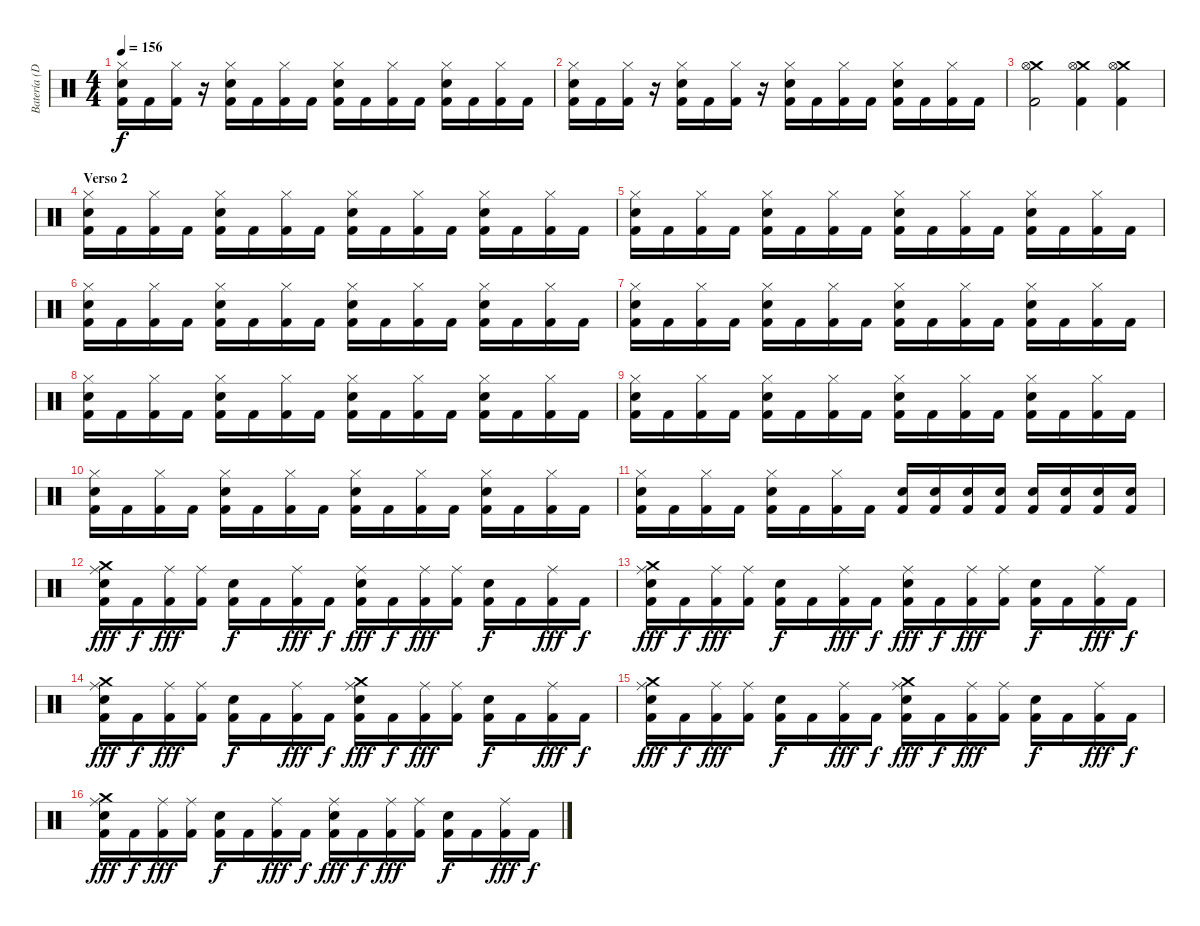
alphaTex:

\track ("Batería (Dani)" "Batería (D") {instrument percussion}
\staff {score}
\articulation defaults
\ts (4 4)
\tempo 156
\clef neutral
\ks c
("Hi-Hat (closed)" "Snare (hit) 2" "Kick (hit) 2").16{dy f} "Kick (hit) 2".16 ("Hi-Hat (closed)" "Kick (hit) 2").16 r.16 ("Hi-Hat (closed)" "Snare (hit) 2" "Kick (hit) 2").16 "Kick (hit) 2".16 ("Hi-Hat (closed)" "Kick (hit) 2").16 "Kick (hit) 2".16 ("Hi-Hat (closed)" "Snare (hit) 2" "Kick (hit) 2").16 "Kick (hit) 2".16 ("Hi-Hat (closed)" "Kick (hit) 2").16 "Kick (hit) 2".16 ("Hi-Hat (closed)" "Snare (hit) 2" "Kick (hit) 2").16 "Kick (hit) 2".16 ("Hi-Hat (closed)" "Kick (hit) 2").16 "Kick (hit) 2".16 |
("Hi-Hat (closed)" "Snare (hit) 2" "Kick (hit) 2").16 "Kick (hit) 2".16 ("Hi-Hat (closed)" "Kick (hit) 2").16 r.16 ("Hi-Hat (closed)" "Snare (hit) 2" "Kick (hit) 2").16 "Kick (hit) 2".16 ("Hi-Hat (closed)" "Kick (hit) 2").16 r.16 ("Hi-Hat (closed)" "Snare (hit) 2" "Kick (hit) 2").16 "Kick (hit) 2".16 ("Hi-Hat (closed)" "Kick (hit) 2").16 "Kick (hit) 2".16 ("Hi-Hat (closed)" "Snare (hit) 2" "Kick (hit) 2").16 "Kick (hit) 2".16 ("Hi-Hat (closed)" "Kick (hit) 2").16 "Kick (hit) 2".16 |
("Crash medium (hit)" "Hi-Hat (open)" "Kick (hit) 2").2 ("Crash medium (hit)" "Hi-Hat (open)" "Kick (hit) 2").4 ("Crash medium (hit)" "Hi-Hat (open)" "Kick (hit) 2").4 |
\section ("" "Verso 2")
("Hi-Hat (closed)" "Snare (hit) 2" "Kick (hit) 2").16 "Kick (hit) 2".16 ("Hi-Hat (closed)" "Kick (hit) 2").16 "Kick (hit) 2".16 ("Hi-Hat (closed)" "Snare (hit) 2" "Kick (hit) 2").16 "Kick (hit) 2".16 ("Hi-Hat (closed)" "Kick (hit) 2").16 "Kick (hit) 2".16 ("Hi-Hat (closed)" "Snare (hit) 2" "Kick (hit) 2").16 "Kick (hit) 2".16 ("Hi-Hat (closed)" "Kick (hit) 2").16 "Kick (hit) 2".16 ("Hi-Hat (closed)" "Snare (hit) 2" "Kick (hit) 2").16 "Kick (hit) 2".16 ("Hi-Hat (closed)" "Kick (hit) 2").16 "Kick (hit) 2".16 |
("Hi-Hat (closed)" "Snare (hit) 2" "Kick (hit) 2").16 "Kick (hit) 2".16 ("Hi-Hat (closed)" "Kick (hit) 2").16 "Kick (hit) 2".16 ("Hi-Hat (closed)" "Snare (hit) 2" "Kick (hit) 2").16 "Kick (hit) 2".16 ("Hi-Hat (closed)" "Kick (hit) 2").16 "Kick (hit) 2".16 ("Hi-Hat (closed)" "Snare (hit) 2" "Kick (hit) 2").16 "Kick (hit) 2".16 ("Hi-Hat (closed)" "Kick (hit) 2").16 "Kick (hit) 2".16 ("Hi-Hat (closed)" "Snare (hit) 2" "Kick (hit) 2").16 "Kick (hit) 2".16 ("Hi-Hat (closed)" "Kick (hit) 2").16 "Kick (hit) 2".16 |
("Hi-Hat (closed)" "Snare (hit) 2" "Kick (hit) 2").16 "Kick (hit) 2".16 ("Hi-Hat (closed)" "Kick (hit) 2").16 "Kick (hit) 2".16 ("Hi-Hat (closed)" "Snare (hit) 2" "Kick (hit) 2").16 "Kick (hit) 2".16 ("Hi-Hat (closed)" "Kick (hit) 2").16 "Kick (hit) 2".16 ("Hi-Hat (closed)" "Snare (hit) 2" "Kick (hit) 2").16 "Kick (hit) 2".16 ("Hi-Hat (closed)" "Kick (hit) 2").16 "Kick (hit) 2".16 ("Hi-Hat (closed)" "Snare (hit) 2" "Kick (hit) 2").16 "Kick (hit) 2".16 ("Hi-Hat (closed)" "Kick (hit) 2").16 "Kick (hit) 2".16 |
("Hi-Hat (closed)" "Snare (hit) 2" "Kick (hit) 2").16 "Kick (hit) 2".16 ("Hi-Hat (closed)" "Kick (hit) 2").16 "Kick (hit) 2".16 ("Hi-Hat (closed)" "Snare (hit) 2" "Kick (hit) 2").16 "Kick (hit) 2".16 ("Hi-Hat (closed)" "Kick (hit) 2").16 "Kick (hit) 2".16 ("Hi-Hat (closed)" "Snare (hit) 2" "Kick (hit) 2").16 "Kick (hit) 2".16 ("Hi-Hat (closed)" "Kick (hit) 2").16 "Kick (hit) 2".16 ("Hi-Hat (closed)" "Snare (hit) 2" "Kick (hit) 2").16 "Kick (hit) 2".16 ("Hi-Hat (closed)" "Kick (hit) 2").16 "Kick (hit) 2".16 |
("Hi-Hat (closed)" "Snare (hit) 2" "Kick (hit) 2").16 "Kick (hit) 2".16 ("Hi-Hat (closed)" "Kick (hit) 2").16 "Kick (hit) 2".16 ("Hi-Hat (closed)" "Snare (hit) 2" "Kick (hit) 2").16 "Kick (hit) 2".16 ("Hi-Hat (closed)" "Kick (hit) 2").16 "Kick (hit) 2".16 ("Hi-Hat (closed)" "Snare (hit) 2" "Kick (hit) 2").16 "Kick (hit) 2".16 ("Hi-Hat (closed)" "Kick (hit) 2").16 "Kick (hit) 2".16 ("Hi-Hat (closed)" "Snare (hit) 2" "Kick (hit) 2").16 "Kick (hit) 2".16 ("Hi-Hat (closed)" "Kick (hit) 2").16 "Kick (hit) 2".16 |
("Hi-Hat (closed)" "Snare (hit) 2" "Kick (hit) 2").16 "Kick (hit) 2".16 ("Hi-Hat (closed)" "Kick (hit) 2").16 "Kick (hit) 2".16 ("Hi-Hat (closed)" "Snare (hit) 2" "Kick (hit) 2").16 "Kick (hit) 2".16 ("Hi-Hat (closed)" "Kick (hit) 2").16 "Kick (hit) 2".16 ("Hi-Hat (closed)" "Snare (hit) 2" "Kick (hit) 2").16 "Kick (hit) 2".16 ("Hi-Hat (closed)" "Kick (hit) 2").16 "Kick (hit) 2".16 ("Hi-Hat (closed)" "Snare (hit) 2" "Kick (hit) 2").16 "Kick (hit) 2".16 ("Hi-Hat (closed)" "Kick (hit) 2").16 "Kick (hit) 2".16 |
("Hi-Hat (closed)" "Snare (hit) 2" "Kick (hit) 2").16 "Kick (hit) 2".16 ("Hi-Hat (closed)" "Kick (hit) 2").16 "Kick (hit) 2".16 ("Hi-Hat (closed)" "Snare (hit) 2" "Kick (hit) 2").16 "Kick (hit) 2".16 ("Hi-Hat (closed)" "Kick (hit) 2").16 "Kick (hit) 2".16 ("Hi-Hat (closed)" "Snare (hit) 2" "Kick (hit) 2").16 "Kick (hit) 2".16 ("Hi-Hat (closed)" "Kick (hit) 2").16 "Kick (hit) 2".16 ("Hi-Hat (closed)" "Snare (hit) 2" "Kick (hit) 2").16 "Kick (hit) 2".16 ("Hi-Hat (closed)" "Kick (hit) 2").16 "Kick (hit) 2".16 |
("Hi-Hat (closed)" "Snare (hit) 2" "Kick (hit) 2").16 "Kick (hit) 2".16 ("Hi-Hat (closed)" "Kick (hit) 2").16 "Kick (hit) 2".16 ("Hi-Hat (closed)" "Snare (hit) 2" "Kick (hit) 2").16 "Kick (hit) 2".16 ("Hi-Hat (closed)" "Kick (hit) 2").16 "Kick (hit) 2".16 ("Snare (hit) 2" "Kick (hit) 2").16 ("Snare (hit) 2" "Kick (hit) 2").16 ("Snare (hit) 2" "Kick (hit) 2").16 ("Snare (hit) 2" "Kick (hit) 2").16 ("Snare (hit) 2" "Kick (hit) 2").16 ("Snare (hit) 2" "Kick (hit) 2").16 ("Snare (hit) 2" "Kick (hit) 2").16 ("Snare (hit) 2" "Kick (hit) 2").16 |
("Crash medium (hit)" "Ride (middle)" "Snare (hit) 2" "Kick (hit) 2").16{dy fff} "Kick (hit) 2".16{dy f} ("Ride (middle)" "Kick (hit) 2").16{dy fff} ("Ride (middle)" "Kick (hit) 2").16 ("Snare (hit) 2" "Kick (hit) 2").16{dy f} "Kick (hit) 2".16 ("Ride (middle)" "Kick (hit) 2").16{dy fff} "Kick (hit) 2".16{dy f} ("Ride (middle)" "Snare (hit) 2" "Kick (hit) 2").16{dy fff} "Kick (hit) 2".16{dy f} ("Ride (middle)" "Kick (hit) 2").16{dy fff} ("Ride (middle)" "Kick (hit) 2").16 ("Snare (hit) 2" "Kick (hit) 2").16{dy f} "Kick (hit) 2".16 ("Ride (middle)" "Kick (hit) 2").16{dy fff} "Kick (hit) 2".16{dy f} |
("Crash medium (hit)" "Ride (middle)" "Snare (hit) 2" "Kick (hit) 2").16{dy fff} "Kick (hit) 2".16{dy f} ("Ride (middle)" "Kick (hit) 2").16{dy fff} ("Ride (middle)" "Kick (hit) 2").16 ("Snare (hit) 2" "Kick (hit) 2").16{dy f} "Kick (hit) 2".16 ("Ride (middle)" "Kick (hit) 2").16{dy fff} "Kick (hit) 2".16{dy f} ("Ride (middle)" "Snare (hit) 2" "Kick (hit) 2").16{dy fff} "Kick (hit) 2".16{dy f} ("Ride (middle)" "Kick (hit) 2").16{dy fff} ("Ride (middle)" "Kick (hit) 2").16 ("Snare (hit) 2" "Kick (hit) 2").16{dy f} "Kick (hit) 2".16 ("Ride (middle)" "Kick (hit) 2").16{dy fff} "Kick (hit) 2".16{dy f} |
("Crash medium (hit)" "Ride (middle)" "Snare (hit) 2" "Kick (hit) 2").16{dy fff} "Kick (hit) 2".16{dy f} ("Ride (middle)" "Kick (hit) 2").16{dy fff} ("Ride (middle)" "Kick (hit) 2").16 ("Snare (hit) 2" "Kick (hit) 2").16{dy f} "Kick (hit) 2".16 ("Ride (middle)" "Kick (hit) 2").16{dy fff} "Kick (hit) 2".16{dy f} ("Crash medium (hit)" "Ride (middle)" "Snare (hit) 2" "Kick (hit) 2").16{dy fff} "Kick (hit) 2".16{dy f} ("Ride (middle)" "Kick (hit) 2").16{dy fff} ("Ride (middle)" "Kick (hit) 2").16 ("Snare (hit) 2" "Kick (hit) 2").16{dy f} "Kick (hit) 2".16 ("Ride (middle)" "Kick (hit) 2").16{dy fff} "Kick (hit) 2".16{dy f} |
("Crash medium (hit)" "Ride (middle)" "Snare (hit) 2" "Kick (hit) 2").16{dy fff} "Kick (hit) 2".16{dy f} ("Ride (middle)" "Kick (hit) 2").16{dy fff} ("Ride (middle)" "Kick (hit) 2").16 ("Snare (hit) 2" "Kick (hit) 2").16{dy f} "Kick (hit) 2".16 ("Ride (middle)" "Kick (hit) 2").16{dy fff} "Kick (hit) 2".16{dy f} ("Crash medium (hit)" "Ride (middle)" "Snare (hit) 2" "Kick (hit) 2").16{dy fff} "Kick (hit) 2".16{dy f} ("Ride (middle)" "Kick (hit) 2").16{dy fff} ("Ride (middle)" "Kick (hit) 2").16 ("Snare (hit) 2" "Kick (hit) 2").16{dy f} "Kick (hit) 2".16 ("Ride (middle)" "Kick (hit) 2").16{dy fff} "Kick (hit) 2".16{dy f} |
("Crash medium (hit)" "Ride (middle)" "Snare (hit) 2" "Kick (hit) 2").16{dy fff} "Kick (hit) 2".16{dy f} ("Ride (middle)" "Kick (hit) 2").16{dy fff} ("Ride (middle)" "Kick (hit) 2").16 ("Snare (hit) 2" "Kick (hit) 2").16{dy f} "Kick (hit) 2".16 ("Ride (middle)" "Kick (hit) 2").16{dy fff} "Kick (hit) 2".16{dy f} ("Ride (middle)" "Snare (hit) 2" "Kick (hit) 2").16{dy fff} "Kick (hit) 2".16{dy f} ("Ride (middle)" "Kick (hit) 2").16{dy fff} ("Ride (middle)" "Kick (hit) 2").16 ("Snare (hit) 2" "Kick (hit) 2").16{dy f} "Kick (hit) 2".16 ("Ride (middle)" "Kick (hit) 2").16{dy fff} "Kick (hit) 2".16{dy f}
